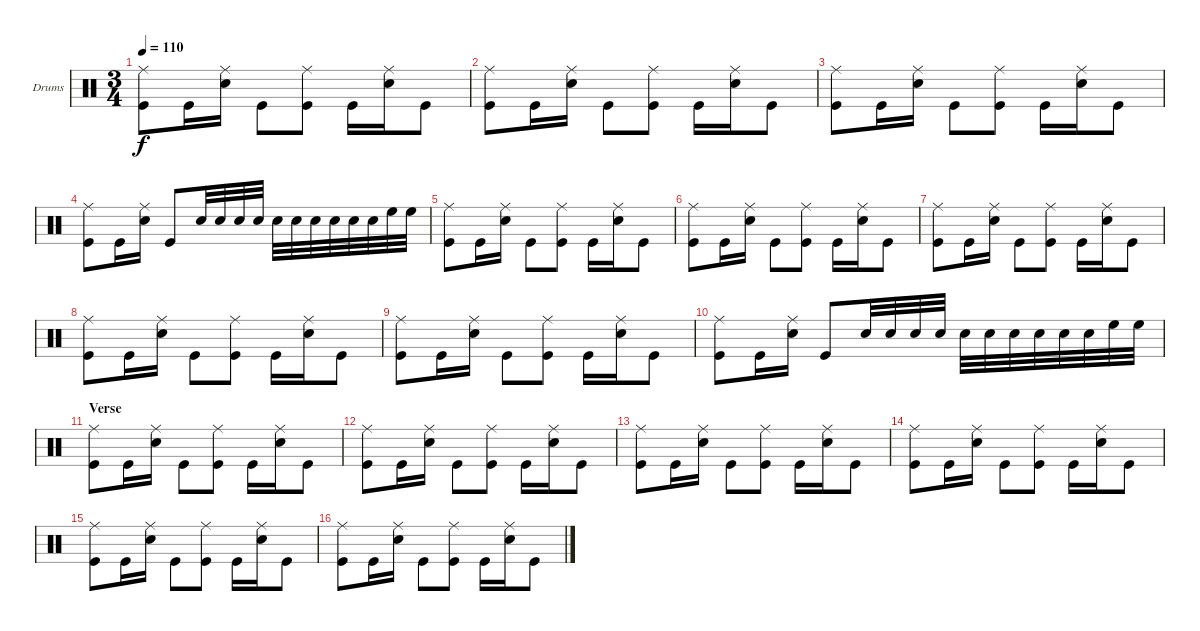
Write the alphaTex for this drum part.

\defaultSystemsLayout 4
\bracketExtendMode nobrackets
\firstSystemTrackNameOrientation horizontal
\otherSystemsTrackNameOrientation horizontal
\track ("Drumkit" "Drums") {instrument percussion}
\staff {score}
\articulation defaults
\ts (3 4)
\tempo 110
\clef neutral
\ks c
("Ride (middle)" "Kick (hit)").8{dy f} "Kick (hit)".16 ("Ride (middle)" "Snare (hit) 2").16 "Kick (hit)".8 ("Ride (middle)" "Kick (hit)").8 "Kick (hit)".16 ("Ride (middle)" "Snare (hit) 2").16 "Kick (hit)".8 |
("Ride (middle)" "Kick (hit)").8 "Kick (hit)".16 ("Ride (middle)" "Snare (hit) 2").16 "Kick (hit)".8 ("Ride (middle)" "Kick (hit)").8 "Kick (hit)".16 ("Ride (middle)" "Snare (hit) 2").16 "Kick (hit)".8 |
("Ride (middle)" "Kick (hit)").8 "Kick (hit)".16 ("Ride (middle)" "Snare (hit) 2").16 "Kick (hit)".8 ("Ride (middle)" "Kick (hit)").8 "Kick (hit)".16 ("Ride (middle)" "Snare (hit) 2").16 "Kick (hit)".8 |
("Ride (middle)" "Kick (hit)").8 "Kick (hit)".16 ("Ride (middle)" "Snare (hit) 2").16 "Kick (hit)".8 "Snare (hit) 2".32 "Snare (hit) 2".32 "Snare (hit) 2".32 "Snare (hit) 2".32 "Snare (hit) 2".32 "Snare (hit) 2".32 "Snare (hit) 2".32 "Snare (hit) 2".32 "Snare (hit) 2".32 "Snare (hit) 2".32 "High Floor Tom (hit)".32 "High Floor Tom (hit)".32 |
("Ride (middle)" "Kick (hit)").8 "Kick (hit)".16 ("Ride (middle)" "Snare (hit) 2").16 "Kick (hit)".8 ("Ride (middle)" "Kick (hit)").8 "Kick (hit)".16 ("Ride (middle)" "Snare (hit) 2").16 "Kick (hit)".8 |
("Ride (middle)" "Kick (hit)").8 "Kick (hit)".16 ("Ride (middle)" "Snare (hit) 2").16 "Kick (hit)".8 ("Ride (middle)" "Kick (hit)").8 "Kick (hit)".16 ("Ride (middle)" "Snare (hit) 2").16 "Kick (hit)".8 |
("Ride (middle)" "Kick (hit)").8 "Kick (hit)".16 ("Ride (middle)" "Snare (hit) 2").16 "Kick (hit)".8 ("Ride (middle)" "Kick (hit)").8 "Kick (hit)".16 ("Ride (middle)" "Snare (hit) 2").16 "Kick (hit)".8 |
("Ride (middle)" "Kick (hit)").8 "Kick (hit)".16 ("Ride (middle)" "Snare (hit) 2").16 "Kick (hit)".8 ("Ride (middle)" "Kick (hit)").8 "Kick (hit)".16 ("Ride (middle)" "Snare (hit) 2").16 "Kick (hit)".8 |
("Ride (middle)" "Kick (hit)").8 "Kick (hit)".16 ("Ride (middle)" "Snare (hit) 2").16 "Kick (hit)".8 ("Ride (middle)" "Kick (hit)").8 "Kick (hit)".16 ("Ride (middle)" "Snare (hit) 2").16 "Kick (hit)".8 |
("Ride (middle)" "Kick (hit)").8 "Kick (hit)".16 ("Ride (middle)" "Snare (hit) 2").16 "Kick (hit)".8 "Snare (hit) 2".32 "Snare (hit) 2".32 "Snare (hit) 2".32 "Snare (hit) 2".32 "Snare (hit) 2".32 "Snare (hit) 2".32 "Snare (hit) 2".32 "Snare (hit) 2".32 "Snare (hit) 2".32 "Snare (hit) 2".32 "High Floor Tom (hit)".32 "High Floor Tom (hit)".32 |
\section ("" "Verse")
("Ride (middle)" "Kick (hit)").8 "Kick (hit)".16 ("Ride (middle)" "Snare (hit) 2").16 "Kick (hit)".8 ("Ride (middle)" "Kick (hit)").8 "Kick (hit)".16 ("Ride (middle)" "Snare (hit) 2").16 "Kick (hit)".8 |
("Ride (middle)" "Kick (hit)").8 "Kick (hit)".16 ("Ride (middle)" "Snare (hit) 2").16 "Kick (hit)".8 ("Ride (middle)" "Kick (hit)").8 "Kick (hit)".16 ("Ride (middle)" "Snare (hit) 2").16 "Kick (hit)".8 |
("Ride (middle)" "Kick (hit)").8 "Kick (hit)".16 ("Ride (middle)" "Snare (hit) 2").16 "Kick (hit)".8 ("Ride (middle)" "Kick (hit)").8 "Kick (hit)".16 ("Ride (middle)" "Snare (hit) 2").16 "Kick (hit)".8 |
("Ride (middle)" "Kick (hit)").8 "Kick (hit)".16 ("Ride (middle)" "Snare (hit) 2").16 "Kick (hit)".8 ("Ride (middle)" "Kick (hit)").8 "Kick (hit)".16 ("Ride (middle)" "Snare (hit) 2").16 "Kick (hit)".8 |
("Ride (middle)" "Kick (hit)").8 "Kick (hit)".16 ("Ride (middle)" "Snare (hit) 2").16 "Kick (hit)".8 ("Ride (middle)" "Kick (hit)").8 "Kick (hit)".16 ("Ride (middle)" "Snare (hit) 2").16 "Kick (hit)".8 |
("Ride (middle)" "Kick (hit)").8 "Kick (hit)".16 ("Ride (middle)" "Snare (hit) 2").16 "Kick (hit)".8 ("Ride (middle)" "Kick (hit)").8 "Kick (hit)".16 ("Ride (middle)" "Snare (hit) 2").16 "Kick (hit)".8
